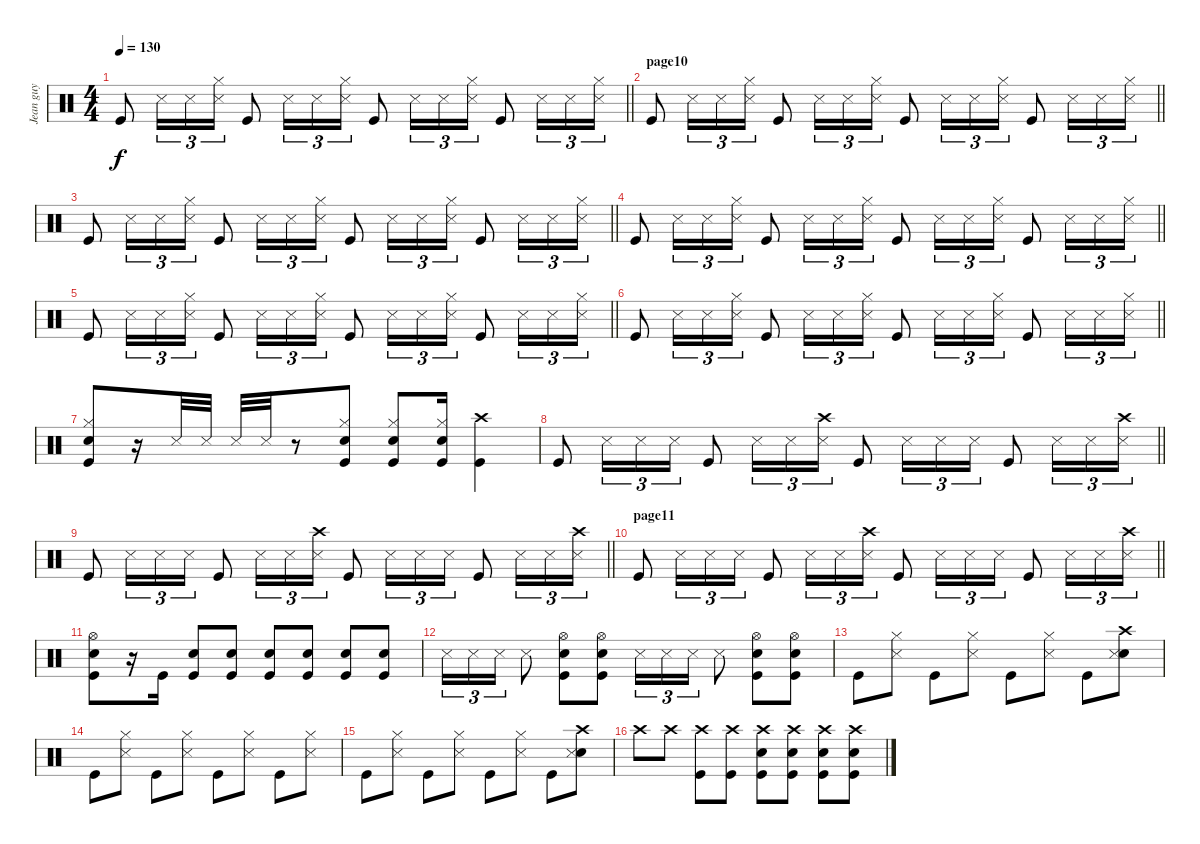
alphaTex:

\track ("Jean guy" "Jean guy") {instrument percussion}
\staff {score}
\articulation defaults
\ts (4 4)
\tempo 130
\clef neutral
\barLineRight lightlight
\ks c "Kick (hit)".8{dy f} "Snare (side stick) 3".16{tu (3 2)} "Snare (side stick) 3".16{tu (3 2)}
("Hi-Hat (closed)" "Snare (side stick) 3").16{tu (3 2)} "Kick (hit)".8 "Snare (side stick) 3".16{tu (3 2)} "Snare (side stick) 3".16{tu (3 2)} ("Hi-Hat (closed)" "Snare (side stick) 3").16{tu (3 2)} "Kick (hit)".8 "Snare (side stick) 3".16{tu (3 2)} "Snare (side stick) 3".16{tu (3 2)} ("Hi-Hat (closed)" "Snare (side stick) 3").16{tu (3 2)} "Kick (hit)".8 "Snare (side stick) 3".16{tu (3 2)} "Snare (side stick) 3".16{tu (3 2)} ("Hi-Hat (closed)" "Snare (side stick) 3").16{tu (3 2)} |
\section ("" "page10")
\barLineRight lightlight "Kick (hit)".8 "Snare (side stick) 3".16{tu (3 2)} "Snare (side stick) 3".16{tu (3 2)}
("Hi-Hat (closed)" "Snare (side stick) 3").16{tu (3 2)} "Kick (hit)".8 "Snare (side stick) 3".16{tu (3 2)} "Snare (side stick) 3".16{tu (3 2)} ("Hi-Hat (closed)" "Snare (side stick) 3").16{tu (3 2)} "Kick (hit)".8 "Snare (side stick) 3".16{tu (3 2)} "Snare (side stick) 3".16{tu (3 2)} ("Hi-Hat (closed)" "Snare (side stick) 3").16{tu (3 2)} "Kick (hit)".8 "Snare (side stick) 3".16{tu (3 2)} "Snare (side stick) 3".16{tu (3 2)} ("Hi-Hat (closed)" "Snare (side stick) 3").16{tu (3 2)} |
\barLineRight lightlight "Kick (hit)".8 "Snare (side stick) 3".16{tu (3 2)} "Snare (side stick) 3".16{tu (3 2)}
("Hi-Hat (closed)" "Snare (side stick) 3").16{tu (3 2)} "Kick (hit)".8 "Snare (side stick) 3".16{tu (3 2)} "Snare (side stick) 3".16{tu (3 2)} ("Hi-Hat (closed)" "Snare (side stick) 3").16{tu (3 2)} "Kick (hit)".8 "Snare (side stick) 3".16{tu (3 2)} "Snare (side stick) 3".16{tu (3 2)} ("Hi-Hat (closed)" "Snare (side stick) 3").16{tu (3 2)} "Kick (hit)".8 "Snare (side stick) 3".16{tu (3 2)} "Snare (side stick) 3".16{tu (3 2)} ("Hi-Hat (closed)" "Snare (side stick) 3").16{tu (3 2)} |
\barLineRight lightlight "Kick (hit)".8 "Snare (side stick) 3".16{tu (3 2)} "Snare (side stick) 3".16{tu (3 2)}
("Hi-Hat (closed)" "Snare (side stick) 3").16{tu (3 2)} "Kick (hit)".8 "Snare (side stick) 3".16{tu (3 2)} "Snare (side stick) 3".16{tu (3 2)} ("Hi-Hat (closed)" "Snare (side stick) 3").16{tu (3 2)} "Kick (hit)".8 "Snare (side stick) 3".16{tu (3 2)} "Snare (side stick) 3".16{tu (3 2)} ("Hi-Hat (closed)" "Snare (side stick) 3").16{tu (3 2)} "Kick (hit)".8 "Snare (side stick) 3".16{tu (3 2)} "Snare (side stick) 3".16{tu (3 2)} ("Hi-Hat (closed)" "Snare (side stick) 3").16{tu (3 2)} |
\barLineRight lightlight "Kick (hit)".8 "Snare (side stick) 3".16{tu (3 2)} "Snare (side stick) 3".16{tu (3 2)}
("Hi-Hat (closed)" "Snare (side stick) 3").16{tu (3 2)} "Kick (hit)".8 "Snare (side stick) 3".16{tu (3 2)} "Snare (side stick) 3".16{tu (3 2)} ("Hi-Hat (closed)" "Snare (side stick) 3").16{tu (3 2)} "Kick (hit)".8 "Snare (side stick) 3".16{tu (3 2)} "Snare (side stick) 3".16{tu (3 2)} ("Hi-Hat (closed)" "Snare (side stick) 3").16{tu (3 2)} "Kick (hit)".8 "Snare (side stick) 3".16{tu (3 2)} "Snare (side stick) 3".16{tu (3 2)} ("Hi-Hat (closed)" "Snare (side stick) 3").16{tu (3 2)} |
\barLineRight lightlight "Kick (hit)".8 "Snare (side stick) 3".16{tu (3 2)} "Snare (side stick) 3".16{tu (3 2)}
("Hi-Hat (closed)" "Snare (side stick) 3").16{tu (3 2)} "Kick (hit)".8 "Snare (side stick) 3".16{tu (3 2)} "Snare (side stick) 3".16{tu (3 2)} ("Hi-Hat (closed)" "Snare (side stick) 3").16{tu (3 2)} "Kick (hit)".8 "Snare (side stick) 3".16{tu (3 2)} "Snare (side stick) 3".16{tu (3 2)} ("Hi-Hat (closed)" "Snare (side stick) 3").16{tu (3 2)} "Kick (hit)".8 "Snare (side stick) 3".16{tu (3 2)} "Snare (side stick) 3".16{tu (3 2)} ("Hi-Hat (closed)" "Snare (side stick) 3").16{tu (3 2)} |
("Hi-Hat (closed)" "Electric Snare (hit)" "Kick (hit)").8 r.16 "Snare (side stick) 3".32 "Snare (side stick) 3".32 "Snare (side stick) 3".32 "Snare (side stick) 3".32 r.8 ("Hi-Hat (closed)" "Electric Snare (hit)" "Kick (hit)").8 ("Hi-Hat (closed)" "Electric Snare (hit)" "Kick (hit)").8 ("Hi-Hat (closed)" "Electric Snare (hit)" "Kick (hit)").16 ("Crash high (hit)" "Kick (hit)").4 |
\barLineRight lightlight "Kick (hit)".8 "Snare (side stick) 3".16{tu (3 2)} "Snare (side stick) 3".16{tu (3 2)} "Snare (side stick) 3".16{tu (3 2)} "Kick (hit)".8 "Snare (side stick) 3".16{tu (3 2)} "Snare (side stick) 3".16{tu (3 2)}
("Crash high (hit)" "Snare (side stick) 3").16{tu (3 2)} "Kick (hit)".8 "Snare (side stick) 3".16{tu (3 2)} "Snare (side stick) 3".16{tu (3 2)} "Snare (side stick) 3".16{tu (3 2)} "Kick (hit)".8 "Snare (side stick) 3".16{tu (3 2)} "Snare (side stick) 3".16{tu (3 2)} ("Crash high (hit)" "Snare (side stick) 3").16{tu (3 2)} |
\barLineRight lightlight "Kick (hit)".8 "Snare (side stick) 3".16{tu (3 2)} "Snare (side stick) 3".16{tu (3 2)} "Snare (side stick) 3".16{tu (3 2)} "Kick (hit)".8 "Snare (side stick) 3".16{tu (3 2)} "Snare (side stick) 3".16{tu (3 2)}
("Crash high (hit)" "Snare (side stick) 3").16{tu (3 2)} "Kick (hit)".8 "Snare (side stick) 3".16{tu (3 2)} "Snare (side stick) 3".16{tu (3 2)} "Snare (side stick) 3".16{tu (3 2)} "Kick (hit)".8 "Snare (side stick) 3".16{tu (3 2)} "Snare (side stick) 3".16{tu (3 2)} ("Crash high (hit)" "Snare (side stick) 3").16{tu (3 2)} |
\section ("" "page11")
\barLineRight lightlight "Kick (hit)".8 "Snare (side stick) 3".16{tu (3 2)} "Snare (side stick) 3".16{tu (3 2)} "Snare (side stick) 3".16{tu (3 2)} "Kick (hit)".8 "Snare (side stick) 3".16{tu (3 2)} "Snare (side stick) 3".16{tu (3 2)}
("Crash high (hit)" "Snare (side stick) 3").16{tu (3 2)} "Kick (hit)".8 "Snare (side stick) 3".16{tu (3 2)} "Snare (side stick) 3".16{tu (3 2)} "Snare (side stick) 3".16{tu (3 2)} "Kick (hit)".8 "Snare (side stick) 3".16{tu (3 2)} "Snare (side stick) 3".16{tu (3 2)} ("Crash high (hit)" "Snare (side stick) 3").16{tu (3 2)} |
("Electric Snare (hit)" "Hi-Hat (open)" "Kick (hit)").8 r.16 "Kick (hit)".16 ("Electric Snare (hit)" "Kick (hit)").8 ("Electric Snare (hit)" "Kick (hit)").8 ("Electric Snare (hit)" "Kick (hit)").8 ("Electric Snare (hit)" "Kick (hit)").8 ("Electric Snare (hit)" "Kick (hit)").8 ("Electric Snare (hit)" "Kick (hit)").8 |
"Snare (side stick) 3".16{tu (3 2)} "Snare (side stick) 3".16{tu (3 2)} "Snare (side stick) 3".16{tu (3 2)} "Snare (side stick) 3".8 ("Electric Snare (hit)" "Kick (hit)" "Hi-Hat (open)").8 ("Electric Snare (hit)" "Kick (hit)" "Hi-Hat (open)").8 "Snare (side stick) 3".16{tu (3 2)} "Snare (side stick) 3".16{tu (3 2)} "Snare (side stick) 3".16{tu (3 2)} "Snare (side stick) 3".8 ("Electric Snare (hit)" "Kick (hit)" "Hi-Hat (open)").8 ("Electric Snare (hit)" "Kick (hit)" "Hi-Hat (open)").8 |
"Kick (hit)".8 ("Hi-Hat (closed)" "Snare (side stick) 3").8 "Kick (hit)".8 ("Hi-Hat (closed)" "Snare (side stick) 3").8 "Kick (hit)".8 ("Hi-Hat (closed)" "Snare (side stick) 3").8 "Kick (hit)".8 ("Electric Snare (hit)" "Crash high (hit)" "Snare (side stick) 3").8 |
"Kick (hit)".8 ("Hi-Hat (closed)" "Snare (side stick) 3").8 "Kick (hit)".8 ("Hi-Hat (closed)" "Snare (side stick) 3").8 "Kick (hit)".8 ("Hi-Hat (closed)" "Snare (side stick) 3").8 "Kick (hit)".8 ("Hi-Hat (closed)" "Snare (side stick) 3").8 |
"Kick (hit)".8 ("Hi-Hat (closed)" "Snare (side stick) 3").8 "Kick (hit)".8 ("Hi-Hat (closed)" "Snare (side stick) 3").8 "Kick (hit)".8 ("Hi-Hat (closed)" "Snare (side stick) 3").8 "Kick (hit)".8 ("Electric Snare (hit)" "Crash high (hit)" "Snare (side stick) 3").8 |
"Crash high (hit)".8 "Crash high (hit)".8 ("Crash high (hit)" "Kick (hit)").8 ("Crash high (hit)" "Kick (hit)").8 ("Electric Snare (hit)" "Crash high (hit)" "Kick (hit)").8 ("Electric Snare (hit)" "Crash high (hit)" "Kick (hit)").8 ("Electric Snare (hit)" "Crash high (hit)" "Kick (hit)").8 ("Electric Snare (hit)" "Crash high (hit)" "Kick (hit)").8
